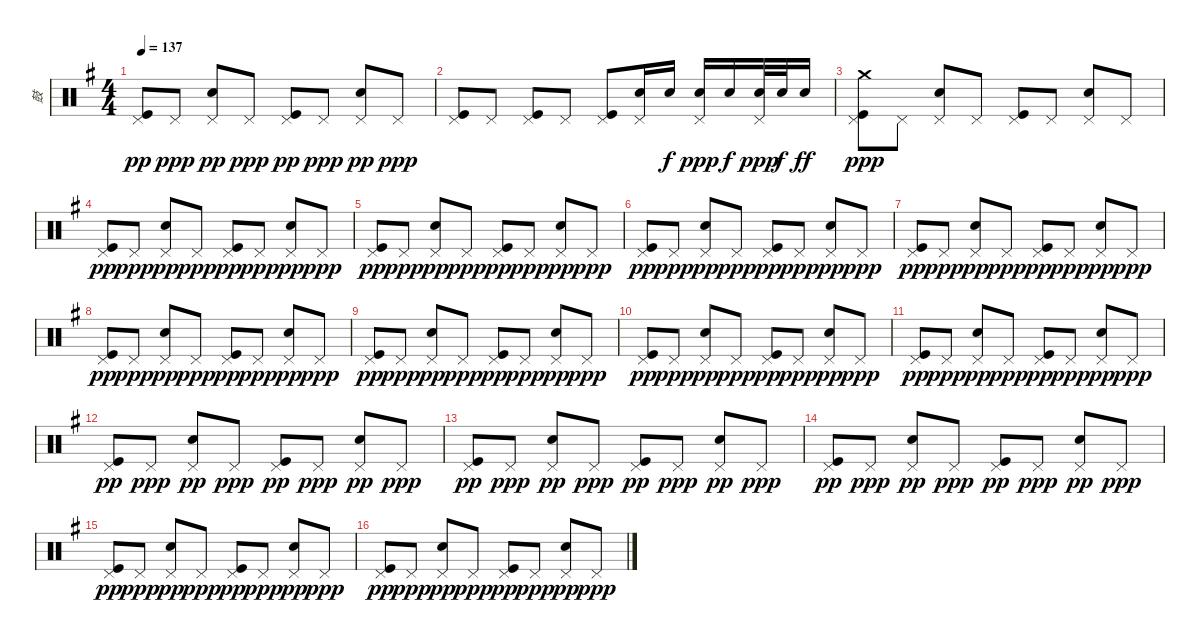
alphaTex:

\track ("鼓" "鼓") {instrument percussion}
\staff {score}
\articulation defaults
\ts (4 4)
\tempo 137
\clef neutral
\ks g
("Kick (hit)" "Pedal Hi-Hat (hit)").8{dy pp} "Pedal Hi-Hat (hit)".8{dy ppp} ("Snare (hit) 2" "Pedal Hi-Hat (hit)").8{dy pp} "Pedal Hi-Hat (hit)".8{dy ppp} ("Kick (hit)" "Pedal Hi-Hat (hit)").8{dy pp} "Pedal Hi-Hat (hit)".8{dy ppp} ("Snare (hit) 2" "Pedal Hi-Hat (hit)").8{dy pp} "Pedal Hi-Hat (hit)".8{dy ppp} |
("Kick (hit)" "Pedal Hi-Hat (hit)").8 "Pedal Hi-Hat (hit)".8 ("Kick (hit)" "Pedal Hi-Hat (hit)").8 "Pedal Hi-Hat (hit)".8 ("Kick (hit)" "Pedal Hi-Hat (hit)").8 ("Snare (hit) 2" "Pedal Hi-Hat (hit)").16 "Snare (hit) 2".16{dy f} ("Snare (hit) 2" "Pedal Hi-Hat (hit)").16{dy ppp} "Snare (hit) 2".16{dy f} ("Snare (hit) 2" "Pedal Hi-Hat (hit)").32{dy ppp} "Snare (hit) 2".32{dy f} "Snare (hit) 2".16{dy ff} |
("Crash medium (hit)" "Kick (hit)" "Pedal Hi-Hat (hit)").8{dy ppp} "Pedal Hi-Hat (hit)".8 ("Snare (hit) 2" "Pedal Hi-Hat (hit)").8 "Pedal Hi-Hat (hit)".8 ("Kick (hit)" "Pedal Hi-Hat (hit)").8 "Pedal Hi-Hat (hit)".8 ("Snare (hit) 2" "Pedal Hi-Hat (hit)").8 "Pedal Hi-Hat (hit)".8 |
("Kick (hit)" "Pedal Hi-Hat (hit)").8{dy pp} "Pedal Hi-Hat (hit)".8{dy ppp} ("Snare (hit) 2" "Pedal Hi-Hat (hit)").8{dy pp} "Pedal Hi-Hat (hit)".8{dy ppp} ("Kick (hit)" "Pedal Hi-Hat (hit)").8{dy pp} "Pedal Hi-Hat (hit)".8{dy ppp} ("Snare (hit) 2" "Pedal Hi-Hat (hit)").8{dy pp} "Pedal Hi-Hat (hit)".8{dy ppp} |
("Kick (hit)" "Pedal Hi-Hat (hit)").8{dy pp} "Pedal Hi-Hat (hit)".8{dy ppp} ("Snare (hit) 2" "Pedal Hi-Hat (hit)").8{dy pp} "Pedal Hi-Hat (hit)".8{dy ppp} ("Kick (hit)" "Pedal Hi-Hat (hit)").8{dy pp} "Pedal Hi-Hat (hit)".8{dy ppp} ("Snare (hit) 2" "Pedal Hi-Hat (hit)").8{dy pp} "Pedal Hi-Hat (hit)".8{dy ppp} |
("Kick (hit)" "Pedal Hi-Hat (hit)").8{dy pp} "Pedal Hi-Hat (hit)".8{dy ppp} ("Snare (hit) 2" "Pedal Hi-Hat (hit)").8{dy pp} "Pedal Hi-Hat (hit)".8{dy ppp} ("Kick (hit)" "Pedal Hi-Hat (hit)").8{dy pp} "Pedal Hi-Hat (hit)".8{dy ppp} ("Snare (hit) 2" "Pedal Hi-Hat (hit)").8{dy pp} "Pedal Hi-Hat (hit)".8{dy ppp} |
("Kick (hit)" "Pedal Hi-Hat (hit)").8{dy pp} "Pedal Hi-Hat (hit)".8{dy ppp} ("Snare (hit) 2" "Pedal Hi-Hat (hit)").8{dy pp} "Pedal Hi-Hat (hit)".8{dy ppp} ("Kick (hit)" "Pedal Hi-Hat (hit)").8{dy pp} "Pedal Hi-Hat (hit)".8{dy ppp} ("Snare (hit) 2" "Pedal Hi-Hat (hit)").8{dy pp} "Pedal Hi-Hat (hit)".8{dy ppp} |
("Kick (hit)" "Pedal Hi-Hat (hit)").8{dy pp} "Pedal Hi-Hat (hit)".8{dy ppp} ("Snare (hit) 2" "Pedal Hi-Hat (hit)").8{dy pp} "Pedal Hi-Hat (hit)".8{dy ppp} ("Kick (hit)" "Pedal Hi-Hat (hit)").8{dy pp} "Pedal Hi-Hat (hit)".8{dy ppp} ("Snare (hit) 2" "Pedal Hi-Hat (hit)").8{dy pp} "Pedal Hi-Hat (hit)".8{dy ppp} |
("Kick (hit)" "Pedal Hi-Hat (hit)").8{dy pp} "Pedal Hi-Hat (hit)".8{dy ppp} ("Snare (hit) 2" "Pedal Hi-Hat (hit)").8{dy pp} "Pedal Hi-Hat (hit)".8{dy ppp} ("Kick (hit)" "Pedal Hi-Hat (hit)").8{dy pp} "Pedal Hi-Hat (hit)".8{dy ppp} ("Snare (hit) 2" "Pedal Hi-Hat (hit)").8{dy pp} "Pedal Hi-Hat (hit)".8{dy ppp} |
("Kick (hit)" "Pedal Hi-Hat (hit)").8{dy pp} "Pedal Hi-Hat (hit)".8{dy ppp} ("Snare (hit) 2" "Pedal Hi-Hat (hit)").8{dy pp} "Pedal Hi-Hat (hit)".8{dy ppp} ("Kick (hit)" "Pedal Hi-Hat (hit)").8{dy pp} "Pedal Hi-Hat (hit)".8{dy ppp} ("Snare (hit) 2" "Pedal Hi-Hat (hit)").8{dy pp} "Pedal Hi-Hat (hit)".8{dy ppp} |
("Kick (hit)" "Pedal Hi-Hat (hit)").8{dy pp} "Pedal Hi-Hat (hit)".8{dy ppp} ("Snare (hit) 2" "Pedal Hi-Hat (hit)").8{dy pp} "Pedal Hi-Hat (hit)".8{dy ppp} ("Kick (hit)" "Pedal Hi-Hat (hit)").8{dy pp} "Pedal Hi-Hat (hit)".8{dy ppp} ("Snare (hit) 2" "Pedal Hi-Hat (hit)").8{dy pp} "Pedal Hi-Hat (hit)".8{dy ppp} |
("Kick (hit)" "Pedal Hi-Hat (hit)").8{dy pp} "Pedal Hi-Hat (hit)".8{dy ppp} ("Snare (hit) 2" "Pedal Hi-Hat (hit)").8{dy pp} "Pedal Hi-Hat (hit)".8{dy ppp} ("Kick (hit)" "Pedal Hi-Hat (hit)").8{dy pp} "Pedal Hi-Hat (hit)".8{dy ppp} ("Snare (hit) 2" "Pedal Hi-Hat (hit)").8{dy pp} "Pedal Hi-Hat (hit)".8{dy ppp} |
("Kick (hit)" "Pedal Hi-Hat (hit)").8{dy pp} "Pedal Hi-Hat (hit)".8{dy ppp} ("Snare (hit) 2" "Pedal Hi-Hat (hit)").8{dy pp} "Pedal Hi-Hat (hit)".8{dy ppp} ("Kick (hit)" "Pedal Hi-Hat (hit)").8{dy pp} "Pedal Hi-Hat (hit)".8{dy ppp} ("Snare (hit) 2" "Pedal Hi-Hat (hit)").8{dy pp} "Pedal Hi-Hat (hit)".8{dy ppp} |
("Kick (hit)" "Pedal Hi-Hat (hit)").8{dy pp} "Pedal Hi-Hat (hit)".8{dy ppp} ("Snare (hit) 2" "Pedal Hi-Hat (hit)").8{dy pp} "Pedal Hi-Hat (hit)".8{dy ppp} ("Kick (hit)" "Pedal Hi-Hat (hit)").8{dy pp} "Pedal Hi-Hat (hit)".8{dy ppp} ("Snare (hit) 2" "Pedal Hi-Hat (hit)").8{dy pp} "Pedal Hi-Hat (hit)".8{dy ppp} |
("Kick (hit)" "Pedal Hi-Hat (hit)").8{dy pp} "Pedal Hi-Hat (hit)".8{dy ppp} ("Snare (hit) 2" "Pedal Hi-Hat (hit)").8{dy pp} "Pedal Hi-Hat (hit)".8{dy ppp} ("Kick (hit)" "Pedal Hi-Hat (hit)").8{dy pp} "Pedal Hi-Hat (hit)".8{dy ppp} ("Snare (hit) 2" "Pedal Hi-Hat (hit)").8{dy pp} "Pedal Hi-Hat (hit)".8{dy ppp} |
("Kick (hit)" "Pedal Hi-Hat (hit)").8{dy pp} "Pedal Hi-Hat (hit)".8{dy ppp} ("Snare (hit) 2" "Pedal Hi-Hat (hit)").8{dy pp} "Pedal Hi-Hat (hit)".8{dy ppp} ("Kick (hit)" "Pedal Hi-Hat (hit)").8{dy pp} "Pedal Hi-Hat (hit)".8{dy ppp} ("Snare (hit) 2" "Pedal Hi-Hat (hit)").8{dy pp} "Pedal Hi-Hat (hit)".8{dy ppp}
